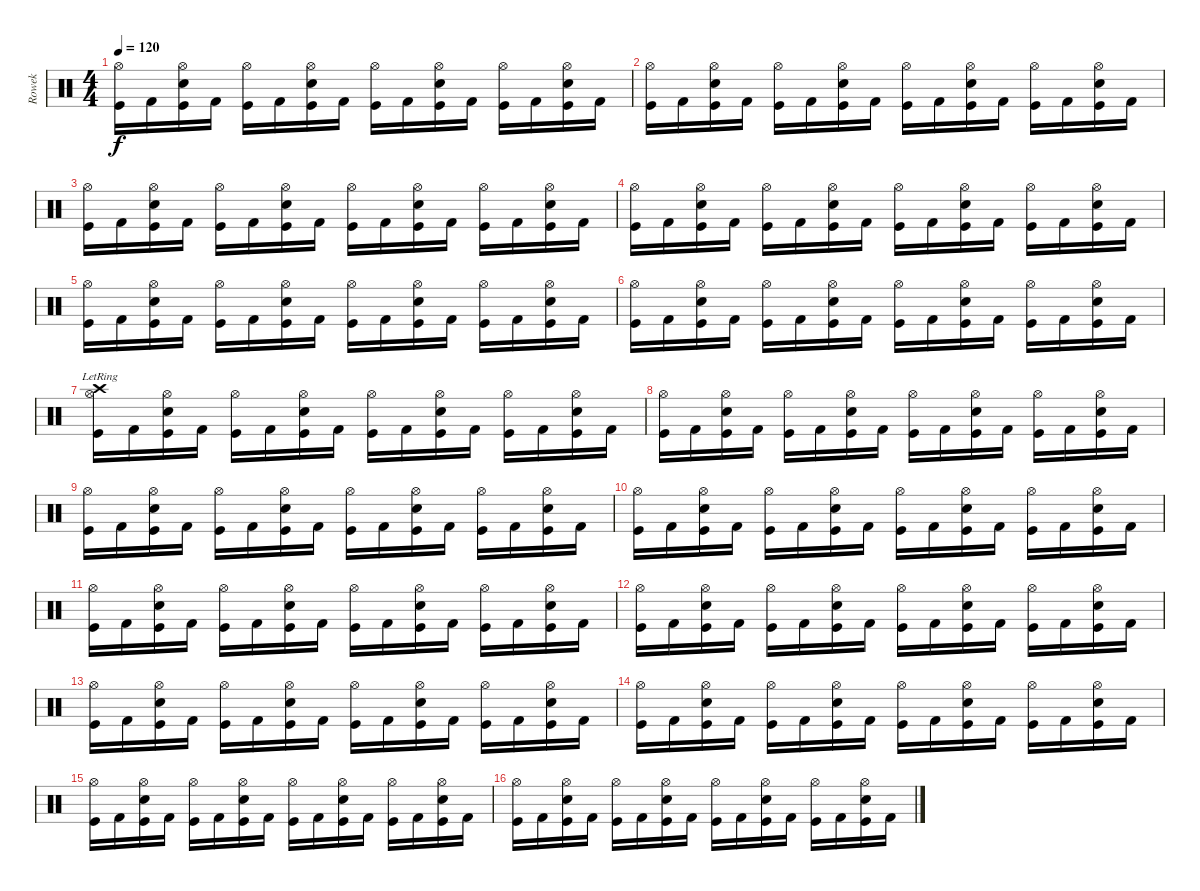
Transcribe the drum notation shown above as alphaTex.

\track ("Rowek" "Rowek") {instrument percussion}
\staff {score}
\articulation defaults
\ts (4 4)
\tempo 120
\clef neutral
\ks c
("Hi-Hat (open)" "Kick (hit)").16{dy f} "Kick (hit) 2".16 ("Hi-Hat (open)" "Snare (hit) 2" "Kick (hit)").16 "Kick (hit) 2".16 ("Hi-Hat (open)" "Kick (hit)").16 "Kick (hit) 2".16 ("Hi-Hat (open)" "Snare (hit) 2" "Kick (hit)").16 "Kick (hit) 2".16 ("Hi-Hat (open)" "Kick (hit)").16 "Kick (hit) 2".16 ("Hi-Hat (open)" "Snare (hit) 2" "Kick (hit)").16 "Kick (hit) 2".16 ("Hi-Hat (open)" "Kick (hit)").16 "Kick (hit) 2".16 ("Hi-Hat (open)" "Snare (hit) 2" "Kick (hit)").16 "Kick (hit) 2".16 |
("Hi-Hat (open)" "Kick (hit)").16 "Kick (hit) 2".16 ("Hi-Hat (open)" "Snare (hit) 2" "Kick (hit)").16 "Kick (hit) 2".16 ("Hi-Hat (open)" "Kick (hit)").16 "Kick (hit) 2".16 ("Hi-Hat (open)" "Snare (hit) 2" "Kick (hit)").16 "Kick (hit) 2".16 ("Hi-Hat (open)" "Kick (hit)").16 "Kick (hit) 2".16 ("Hi-Hat (open)" "Snare (hit) 2" "Kick (hit)").16 "Kick (hit) 2".16 ("Hi-Hat (open)" "Kick (hit)").16 "Kick (hit) 2".16 ("Hi-Hat (open)" "Snare (hit) 2" "Kick (hit)").16 "Kick (hit) 2".16 |
("Hi-Hat (open)" "Kick (hit)").16 "Kick (hit) 2".16 ("Hi-Hat (open)" "Snare (hit) 2" "Kick (hit)").16 "Kick (hit) 2".16 ("Hi-Hat (open)" "Kick (hit)").16 "Kick (hit) 2".16 ("Hi-Hat (open)" "Snare (hit) 2" "Kick (hit)").16 "Kick (hit) 2".16 ("Hi-Hat (open)" "Kick (hit)").16 "Kick (hit) 2".16 ("Hi-Hat (open)" "Snare (hit) 2" "Kick (hit)").16 "Kick (hit) 2".16 ("Hi-Hat (open)" "Kick (hit)").16 "Kick (hit) 2".16 ("Hi-Hat (open)" "Snare (hit) 2" "Kick (hit)").16 "Kick (hit) 2".16 |
("Hi-Hat (open)" "Kick (hit)").16 "Kick (hit) 2".16 ("Hi-Hat (open)" "Snare (hit) 2" "Kick (hit)").16 "Kick (hit) 2".16 ("Hi-Hat (open)" "Kick (hit)").16 "Kick (hit) 2".16 ("Hi-Hat (open)" "Snare (hit) 2" "Kick (hit)").16 "Kick (hit) 2".16 ("Hi-Hat (open)" "Kick (hit)").16 "Kick (hit) 2".16 ("Hi-Hat (open)" "Snare (hit) 2" "Kick (hit)").16 "Kick (hit) 2".16 ("Hi-Hat (open)" "Kick (hit)").16 "Kick (hit) 2".16 ("Hi-Hat (open)" "Snare (hit) 2" "Kick (hit)").16 "Kick (hit) 2".16 |
("Hi-Hat (open)" "Kick (hit)").16 "Kick (hit) 2".16 ("Hi-Hat (open)" "Snare (hit) 2" "Kick (hit)").16 "Kick (hit) 2".16 ("Hi-Hat (open)" "Kick (hit)").16 "Kick (hit) 2".16 ("Hi-Hat (open)" "Snare (hit) 2" "Kick (hit)").16 "Kick (hit) 2".16 ("Hi-Hat (open)" "Kick (hit)").16 "Kick (hit) 2".16 ("Hi-Hat (open)" "Snare (hit) 2" "Kick (hit)").16 "Kick (hit) 2".16 ("Hi-Hat (open)" "Kick (hit)").16 "Kick (hit) 2".16 ("Hi-Hat (open)" "Snare (hit) 2" "Kick (hit)").16 "Kick (hit) 2".16 |
("Hi-Hat (open)" "Kick (hit)").16 "Kick (hit) 2".16 ("Hi-Hat (open)" "Snare (hit) 2" "Kick (hit)").16 "Kick (hit) 2".16 ("Hi-Hat (open)" "Kick (hit)").16 "Kick (hit) 2".16 ("Hi-Hat (open)" "Snare (hit) 2" "Kick (hit)").16 "Kick (hit) 2".16 ("Hi-Hat (open)" "Kick (hit)").16 "Kick (hit) 2".16 ("Hi-Hat (open)" "Snare (hit) 2" "Kick (hit)").16 "Kick (hit) 2".16 ("Hi-Hat (open)" "Kick (hit)").16 "Kick (hit) 2".16 ("Hi-Hat (open)" "Snare (hit) 2" "Kick (hit)").16 "Kick (hit) 2".16 |
("Hi-Hat (open)" "Crash high (hit)"{lr} "Kick (hit)").16 "Kick (hit) 2".16 ("Hi-Hat (open)" "Snare (hit) 2" "Kick (hit)").16 "Kick (hit) 2".16 ("Hi-Hat (open)" "Kick (hit)").16 "Kick (hit) 2".16 ("Hi-Hat (open)" "Snare (hit) 2" "Kick (hit)").16 "Kick (hit) 2".16 ("Hi-Hat (open)" "Kick (hit)").16 "Kick (hit) 2".16 ("Hi-Hat (open)" "Snare (hit) 2" "Kick (hit)").16 "Kick (hit) 2".16 ("Hi-Hat (open)" "Kick (hit)").16 "Kick (hit) 2".16 ("Hi-Hat (open)" "Snare (hit) 2" "Kick (hit)").16 "Kick (hit) 2".16 |
("Hi-Hat (open)" "Kick (hit)").16 "Kick (hit) 2".16 ("Hi-Hat (open)" "Snare (hit) 2" "Kick (hit)").16 "Kick (hit) 2".16 ("Hi-Hat (open)" "Kick (hit)").16 "Kick (hit) 2".16 ("Hi-Hat (open)" "Snare (hit) 2" "Kick (hit)").16 "Kick (hit) 2".16 ("Hi-Hat (open)" "Kick (hit)").16 "Kick (hit) 2".16 ("Hi-Hat (open)" "Snare (hit) 2" "Kick (hit)").16 "Kick (hit) 2".16 ("Hi-Hat (open)" "Kick (hit)").16 "Kick (hit) 2".16 ("Hi-Hat (open)" "Snare (hit) 2" "Kick (hit)").16 "Kick (hit) 2".16 |
("Hi-Hat (open)" "Kick (hit)").16 "Kick (hit) 2".16 ("Hi-Hat (open)" "Snare (hit) 2" "Kick (hit)").16 "Kick (hit) 2".16 ("Hi-Hat (open)" "Kick (hit)").16 "Kick (hit) 2".16 ("Hi-Hat (open)" "Snare (hit) 2" "Kick (hit)").16 "Kick (hit) 2".16 ("Hi-Hat (open)" "Kick (hit)").16 "Kick (hit) 2".16 ("Hi-Hat (open)" "Snare (hit) 2" "Kick (hit)").16 "Kick (hit) 2".16 ("Hi-Hat (open)" "Kick (hit)").16 "Kick (hit) 2".16 ("Hi-Hat (open)" "Snare (hit) 2" "Kick (hit)").16 "Kick (hit) 2".16 |
("Hi-Hat (open)" "Kick (hit)").16 "Kick (hit) 2".16 ("Hi-Hat (open)" "Snare (hit) 2" "Kick (hit)").16 "Kick (hit) 2".16 ("Hi-Hat (open)" "Kick (hit)").16 "Kick (hit) 2".16 ("Hi-Hat (open)" "Snare (hit) 2" "Kick (hit)").16 "Kick (hit) 2".16 ("Hi-Hat (open)" "Kick (hit)").16 "Kick (hit) 2".16 ("Hi-Hat (open)" "Snare (hit) 2" "Kick (hit)").16 "Kick (hit) 2".16 ("Hi-Hat (open)" "Kick (hit)").16 "Kick (hit) 2".16 ("Hi-Hat (open)" "Snare (hit) 2" "Kick (hit)").16 "Kick (hit) 2".16 |
("Hi-Hat (open)" "Kick (hit)").16 "Kick (hit) 2".16 ("Hi-Hat (open)" "Snare (hit) 2" "Kick (hit)").16 "Kick (hit) 2".16 ("Hi-Hat (open)" "Kick (hit)").16 "Kick (hit) 2".16 ("Hi-Hat (open)" "Snare (hit) 2" "Kick (hit)").16 "Kick (hit) 2".16 ("Hi-Hat (open)" "Kick (hit)").16 "Kick (hit) 2".16 ("Hi-Hat (open)" "Snare (hit) 2" "Kick (hit)").16 "Kick (hit) 2".16 ("Hi-Hat (open)" "Kick (hit)").16 "Kick (hit) 2".16 ("Hi-Hat (open)" "Snare (hit) 2" "Kick (hit)").16 "Kick (hit) 2".16 |
("Hi-Hat (open)" "Kick (hit)").16 "Kick (hit) 2".16 ("Hi-Hat (open)" "Snare (hit) 2" "Kick (hit)").16 "Kick (hit) 2".16 ("Hi-Hat (open)" "Kick (hit)").16 "Kick (hit) 2".16 ("Hi-Hat (open)" "Snare (hit) 2" "Kick (hit)").16 "Kick (hit) 2".16 ("Hi-Hat (open)" "Kick (hit)").16 "Kick (hit) 2".16 ("Hi-Hat (open)" "Snare (hit) 2" "Kick (hit)").16 "Kick (hit) 2".16 ("Hi-Hat (open)" "Kick (hit)").16 "Kick (hit) 2".16 ("Hi-Hat (open)" "Snare (hit) 2" "Kick (hit)").16 "Kick (hit) 2".16 |
("Hi-Hat (open)" "Kick (hit)").16 "Kick (hit) 2".16 ("Hi-Hat (open)" "Snare (hit) 2" "Kick (hit)").16 "Kick (hit) 2".16 ("Hi-Hat (open)" "Kick (hit)").16 "Kick (hit) 2".16 ("Hi-Hat (open)" "Snare (hit) 2" "Kick (hit)").16 "Kick (hit) 2".16 ("Hi-Hat (open)" "Kick (hit)").16 "Kick (hit) 2".16 ("Hi-Hat (open)" "Snare (hit) 2" "Kick (hit)").16 "Kick (hit) 2".16 ("Hi-Hat (open)" "Kick (hit)").16 "Kick (hit) 2".16 ("Hi-Hat (open)" "Snare (hit) 2" "Kick (hit)").16 "Kick (hit) 2".16 |
("Hi-Hat (open)" "Kick (hit)").16 "Kick (hit) 2".16 ("Hi-Hat (open)" "Snare (hit) 2" "Kick (hit)").16 "Kick (hit) 2".16 ("Hi-Hat (open)" "Kick (hit)").16 "Kick (hit) 2".16 ("Hi-Hat (open)" "Snare (hit) 2" "Kick (hit)").16 "Kick (hit) 2".16 ("Hi-Hat (open)" "Kick (hit)").16 "Kick (hit) 2".16 ("Hi-Hat (open)" "Snare (hit) 2" "Kick (hit)").16 "Kick (hit) 2".16 ("Hi-Hat (open)" "Kick (hit)").16 "Kick (hit) 2".16 ("Hi-Hat (open)" "Snare (hit) 2" "Kick (hit)").16 "Kick (hit) 2".16 |
("Hi-Hat (open)" "Kick (hit)").16 "Kick (hit) 2".16 ("Hi-Hat (open)" "Snare (hit) 2" "Kick (hit)").16 "Kick (hit) 2".16 ("Hi-Hat (open)" "Kick (hit)").16 "Kick (hit) 2".16 ("Hi-Hat (open)" "Snare (hit) 2" "Kick (hit)").16 "Kick (hit) 2".16 ("Hi-Hat (open)" "Kick (hit)").16 "Kick (hit) 2".16 ("Hi-Hat (open)" "Snare (hit) 2" "Kick (hit)").16 "Kick (hit) 2".16 ("Hi-Hat (open)" "Kick (hit)").16 "Kick (hit) 2".16 ("Hi-Hat (open)" "Snare (hit) 2" "Kick (hit)").16 "Kick (hit) 2".16 |
("Hi-Hat (open)" "Kick (hit)").16 "Kick (hit) 2".16 ("Hi-Hat (open)" "Snare (hit) 2" "Kick (hit)").16 "Kick (hit) 2".16 ("Hi-Hat (open)" "Kick (hit)").16 "Kick (hit) 2".16 ("Hi-Hat (open)" "Snare (hit) 2" "Kick (hit)").16 "Kick (hit) 2".16 ("Hi-Hat (open)" "Kick (hit)").16 "Kick (hit) 2".16 ("Hi-Hat (open)" "Snare (hit) 2" "Kick (hit)").16 "Kick (hit) 2".16 ("Hi-Hat (open)" "Kick (hit)").16 "Kick (hit) 2".16 ("Hi-Hat (open)" "Snare (hit) 2" "Kick (hit)").16 "Kick (hit) 2".16
